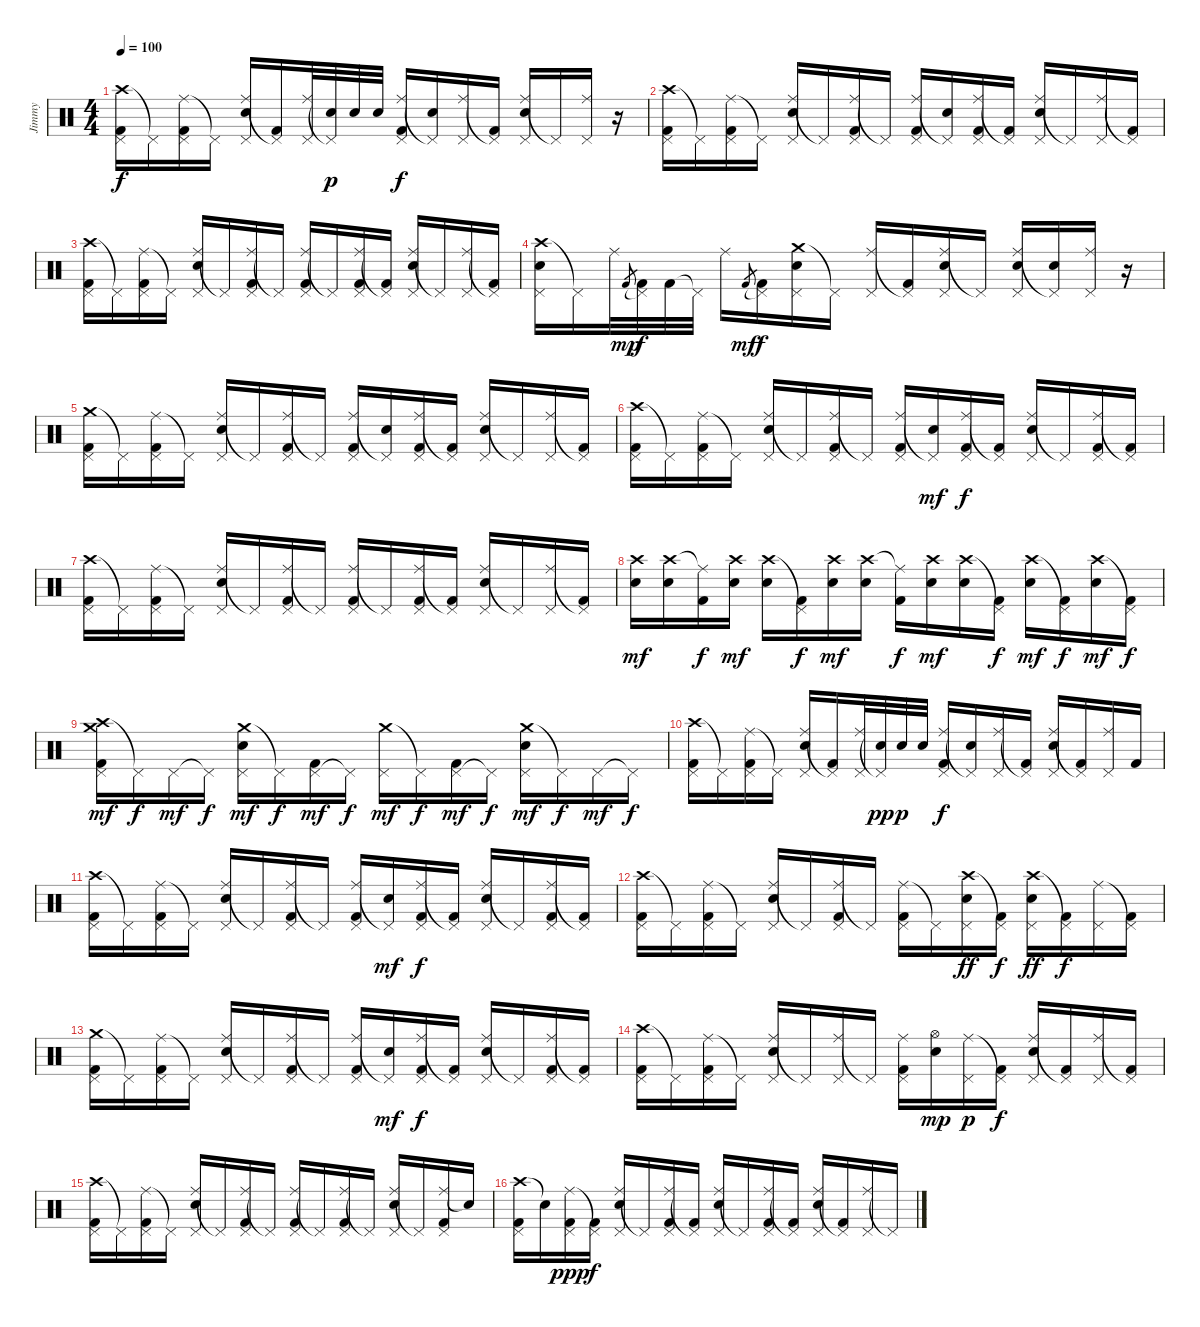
\track ("Jimmy" "Jimmy") {instrument percussion}
\staff {score}
\articulation defaults
\ts (4 4)
\tempo 100
\clef neutral
\ks c
("Crash high (hit)" "Pedal Hi-Hat (hit)" "Kick (hit) 2").16{dy f} "Pedal Hi-Hat (hit)"{t}.16 ("Ride (middle)" "Pedal Hi-Hat (hit)" "Kick (hit) 2").16 "Pedal Hi-Hat (hit)"{t}.16 ("Ride (middle)" "Pedal Hi-Hat (hit)" "Electric Snare (hit)").16 ("Pedal Hi-Hat (hit)"{t} "Kick (hit) 2").16 ("Ride (middle)" "Pedal Hi-Hat (hit)").32 ("Pedal Hi-Hat (hit)"{t} "Electric Snare (hit)").32{dy p} "Electric Snare (hit)".32 "Electric Snare (hit)".32 ("Ride (middle)" "Pedal Hi-Hat (hit)" "Kick (hit) 2").16{dy f} ("Pedal Hi-Hat (hit)"{t} "Electric Snare (hit)").16 ("Ride (middle)" "Pedal Hi-Hat (hit)").16 ("Pedal Hi-Hat (hit)"{t} "Kick (hit) 2").16 ("Ride (middle)" "Pedal Hi-Hat (hit)" "Electric Snare (hit)").16 "Pedal Hi-Hat (hit)"{t}.16 ("Ride (middle)" "Pedal Hi-Hat (hit)").16 r.16 |
("Crash high (hit)" "Pedal Hi-Hat (hit)" "Kick (hit) 2").16 "Pedal Hi-Hat (hit)"{t}.16 ("Ride (middle)" "Pedal Hi-Hat (hit)" "Kick (hit) 2").16 "Pedal Hi-Hat (hit)"{t}.16 ("Ride (middle)" "Pedal Hi-Hat (hit)" "Electric Snare (hit)").16 "Pedal Hi-Hat (hit)"{t}.16 ("Ride (middle)" "Pedal Hi-Hat (hit)" "Kick (hit) 2").16 "Pedal Hi-Hat (hit)"{t}.16 ("Ride (middle)" "Pedal Hi-Hat (hit)" "Kick (hit) 2").16 ("Pedal Hi-Hat (hit)"{t} "Electric Snare (hit)").16 ("Ride (middle)" "Pedal Hi-Hat (hit)" "Kick (hit) 2").16 ("Pedal Hi-Hat (hit)"{t} "Kick (hit) 2").16 ("Ride (middle)" "Pedal Hi-Hat (hit)" "Electric Snare (hit)").16 "Pedal Hi-Hat (hit)"{t}.16 ("Ride (middle)" "Pedal Hi-Hat (hit)").16 ("Pedal Hi-Hat (hit)"{t} "Kick (hit) 2").16 |
("Crash high (hit)" "Pedal Hi-Hat (hit)" "Kick (hit) 2").16 "Pedal Hi-Hat (hit)"{t}.16 ("Ride (middle)" "Pedal Hi-Hat (hit)" "Kick (hit) 2").16 "Pedal Hi-Hat (hit)"{t}.16 ("Ride (middle)" "Pedal Hi-Hat (hit)" "Electric Snare (hit)").16 "Pedal Hi-Hat (hit)"{t}.16 ("Ride (middle)" "Pedal Hi-Hat (hit)" "Kick (hit) 2").16 "Pedal Hi-Hat (hit)"{t}.16 ("Ride (middle)" "Pedal Hi-Hat (hit)" "Kick (hit) 2").16 "Pedal Hi-Hat (hit)"{t}.16 ("Ride (middle)" "Pedal Hi-Hat (hit)" "Kick (hit) 2").16 ("Pedal Hi-Hat (hit)"{t} "Kick (hit) 2").16 ("Ride (middle)" "Pedal Hi-Hat (hit)" "Electric Snare (hit)").16 "Pedal Hi-Hat (hit)"{t}.16 ("Ride (middle)" "Pedal Hi-Hat (hit)").16 ("Pedal Hi-Hat (hit)"{t} "Kick (hit) 2").16 |
("Crash high (hit)" "Pedal Hi-Hat (hit)" "Electric Snare (hit)").16 "Pedal Hi-Hat (hit)"{t}.16 "Ride (middle)".32 "Kick (hit) 2".8{gr dy mp} ("Pedal Hi-Hat (hit)"{t} "Kick (hit) 2").32{dy f} "Kick (hit) 2".32 "Pedal Hi-Hat (hit)"{t}.32 "Ride (middle)".16 "Kick (hit) 2".8{gr dy mf} ("Pedal Hi-Hat (hit)"{t} "Kick (hit) 2").16{dy f} ("Crash medium (hit)" "Pedal Hi-Hat (hit)" "Electric Snare (hit)").16 "Pedal Hi-Hat (hit)"{t}.16 ("Ride (middle)" "Pedal Hi-Hat (hit)").16 ("Pedal Hi-Hat (hit)"{t} "Kick (hit) 2").16 ("Ride (middle)" "Pedal Hi-Hat (hit)" "Electric Snare (hit)").16 "Pedal Hi-Hat (hit)"{t}.16 ("Ride (middle)" "Pedal Hi-Hat (hit)" "Electric Snare (hit)").16 ("Pedal Hi-Hat (hit)"{t} "Electric Snare (hit)").16 ("Ride (middle)" "Pedal Hi-Hat (hit)").16 r.16 |
("Crash medium (hit)" "Pedal Hi-Hat (hit)" "Kick (hit) 2").16 "Pedal Hi-Hat (hit)"{t}.16 ("Ride (middle)" "Pedal Hi-Hat (hit)" "Kick (hit) 2").16 "Pedal Hi-Hat (hit)"{t}.16 ("Ride (middle)" "Pedal Hi-Hat (hit)" "Electric Snare (hit)").16 "Pedal Hi-Hat (hit)"{t}.16 ("Ride (middle)" "Pedal Hi-Hat (hit)" "Kick (hit) 2").16 "Pedal Hi-Hat (hit)"{t}.16 ("Ride (middle)" "Pedal Hi-Hat (hit)" "Kick (hit) 2").16 ("Pedal Hi-Hat (hit)"{t} "Electric Snare (hit)").16 ("Ride (middle)" "Pedal Hi-Hat (hit)" "Kick (hit) 2").16 ("Pedal Hi-Hat (hit)"{t} "Kick (hit) 2").16 ("Ride (middle)" "Pedal Hi-Hat (hit)" "Electric Snare (hit)").16 "Pedal Hi-Hat (hit)"{t}.16 ("Ride (middle)" "Pedal Hi-Hat (hit)").16 ("Pedal Hi-Hat (hit)"{t} "Kick (hit) 2").16 |
("Crash high (hit)" "Pedal Hi-Hat (hit)" "Kick (hit) 2").16 "Pedal Hi-Hat (hit)"{t}.16 ("Ride (middle)" "Pedal Hi-Hat (hit)" "Kick (hit) 2").16 "Pedal Hi-Hat (hit)"{t}.16 ("Ride (middle)" "Pedal Hi-Hat (hit)" "Electric Snare (hit)").16 "Pedal Hi-Hat (hit)"{t}.16 ("Ride (middle)" "Pedal Hi-Hat (hit)" "Kick (hit) 2").16 "Pedal Hi-Hat (hit)"{t}.16 ("Ride (middle)" "Pedal Hi-Hat (hit)" "Kick (hit) 2").16 ("Pedal Hi-Hat (hit)"{t} "Electric Snare (hit)").16{dy mf} ("Ride (middle)" "Pedal Hi-Hat (hit)" "Kick (hit) 2").16{dy f} ("Pedal Hi-Hat (hit)"{t} "Kick (hit) 2").16 ("Ride (middle)" "Pedal Hi-Hat (hit)" "Electric Snare (hit)").16 "Pedal Hi-Hat (hit)"{t}.16 ("Ride (middle)" "Pedal Hi-Hat (hit)" "Kick (hit) 2").16 ("Pedal Hi-Hat (hit)"{t} "Kick (hit) 2").16 |
("Crash high (hit)" "Pedal Hi-Hat (hit)" "Kick (hit) 2").16 "Pedal Hi-Hat (hit)"{t}.16 ("Ride (middle)" "Pedal Hi-Hat (hit)" "Kick (hit) 2").16 "Pedal Hi-Hat (hit)"{t}.16 ("Ride (middle)" "Pedal Hi-Hat (hit)" "Electric Snare (hit)").16 "Pedal Hi-Hat (hit)"{t}.16 ("Ride (middle)" "Pedal Hi-Hat (hit)" "Kick (hit) 2").16 "Pedal Hi-Hat (hit)"{t}.16 ("Ride (middle)" "Pedal Hi-Hat (hit)" "Kick (hit) 2").16 "Pedal Hi-Hat (hit)"{t}.16 ("Ride (middle)" "Pedal Hi-Hat (hit)" "Kick (hit) 2").16 ("Pedal Hi-Hat (hit)"{t} "Kick (hit) 2").16 ("Ride (middle)" "Pedal Hi-Hat (hit)" "Electric Snare (hit)").16 "Pedal Hi-Hat (hit)"{t}.16 ("Ride (middle)" "Pedal Hi-Hat (hit)").16 ("Pedal Hi-Hat (hit)"{t} "Kick (hit) 2").16 |
("Crash high (hit)" "Electric Snare (hit)").16{dy mf} ("Crash high (hit)" "Electric Snare (hit)").16 ("Ride (middle)"{t} "Kick (hit) 2").16{dy f} ("Crash high (hit)" "Electric Snare (hit)").16{dy mf} ("Crash high (hit)" "Electric Snare (hit)").16 ("Pedal Hi-Hat (hit)"{t} "Kick (hit) 2").16{dy f} ("Crash high (hit)" "Electric Snare (hit)").16{dy mf} ("Crash high (hit)" "Electric Snare (hit)").16 ("Ride (middle)"{t} "Kick (hit) 2").16{dy f} ("Crash high (hit)" "Electric Snare (hit)").16{dy mf} ("Crash high (hit)" "Electric Snare (hit)").16 ("Pedal Hi-Hat (hit)"{t} "Kick (hit) 2").16{dy f} ("Crash high (hit)" "Electric Snare (hit)").16{dy mf} ("Pedal Hi-Hat (hit)"{t} "Kick (hit) 2").16{dy f} ("Crash high (hit)" "Electric Snare (hit)").16{dy mf} ("Pedal Hi-Hat (hit)"{t} "Kick (hit) 2").16{dy f} |
("Crash high (hit)" "Crash medium (hit)" "Pedal Hi-Hat (hit)" "Kick (hit) 2").16{dy mf} "Pedal Hi-Hat (hit)"{t}.16{dy f} "Pedal Hi-Hat (hit)".16{dy mf} "Pedal Hi-Hat (hit)"{t}.16{dy f} ("Crash medium (hit)" "Pedal Hi-Hat (hit)" "Electric Snare (hit)").16{dy mf} "Pedal Hi-Hat (hit)"{t}.16{dy f} ("Pedal Hi-Hat (hit)" "Kick (hit) 2").16{dy mf} "Pedal Hi-Hat (hit)"{t}.16{dy f} ("Crash medium (hit)" "Pedal Hi-Hat (hit)").16{dy mf} "Pedal Hi-Hat (hit)"{t}.16{dy f} ("Pedal Hi-Hat (hit)" "Kick (hit) 2").16{dy mf} "Pedal Hi-Hat (hit)"{t}.16{dy f} ("Crash medium (hit)" "Pedal Hi-Hat (hit)" "Electric Snare (hit)").16{dy mf} "Pedal Hi-Hat (hit)"{t}.16{dy f} "Pedal Hi-Hat (hit)".16{dy mf} "Pedal Hi-Hat (hit)"{t}.16{dy f} |
("Crash high (hit)" "Pedal Hi-Hat (hit)" "Kick (hit) 2").16 "Pedal Hi-Hat (hit)"{t}.16 ("Ride (middle)" "Pedal Hi-Hat (hit)" "Kick (hit) 2").16 "Pedal Hi-Hat (hit)"{t}.16 ("Ride (middle)" "Pedal Hi-Hat (hit)" "Electric Snare (hit)").16 ("Pedal Hi-Hat (hit)"{t} "Kick (hit) 2").16 ("Ride (middle)" "Pedal Hi-Hat (hit)").32 ("Pedal Hi-Hat (hit)"{t} "Electric Snare (hit)").32{dy pp} "Electric Snare (hit)".32{dy p} "Electric Snare (hit)".32 ("Ride (middle)" "Pedal Hi-Hat (hit)" "Kick (hit) 2").16{dy f} ("Pedal Hi-Hat (hit)"{t} "Electric Snare (hit)").16 ("Ride (middle)" "Pedal Hi-Hat (hit)").16 ("Pedal Hi-Hat (hit)"{t} "Kick (hit) 2").16 ("Ride (middle)" "Pedal Hi-Hat (hit)" "Electric Snare (hit)").16 ("Pedal Hi-Hat (hit)"{t} "Kick (hit) 2").16 ("Ride (middle)" "Pedal Hi-Hat (hit)").16 "Kick (hit) 2".16 |
("Crash high (hit)" "Pedal Hi-Hat (hit)" "Kick (hit) 2").16 "Pedal Hi-Hat (hit)"{t}.16 ("Ride (middle)" "Pedal Hi-Hat (hit)" "Kick (hit) 2").16 "Pedal Hi-Hat (hit)"{t}.16 ("Ride (middle)" "Pedal Hi-Hat (hit)" "Electric Snare (hit)").16 "Pedal Hi-Hat (hit)"{t}.16 ("Ride (middle)" "Pedal Hi-Hat (hit)" "Kick (hit) 2").16 "Pedal Hi-Hat (hit)"{t}.16 ("Ride (middle)" "Pedal Hi-Hat (hit)" "Kick (hit) 2").16 ("Pedal Hi-Hat (hit)"{t} "Electric Snare (hit)").16{dy mf} ("Ride (middle)" "Pedal Hi-Hat (hit)" "Kick (hit) 2").16{dy f} ("Pedal Hi-Hat (hit)"{t} "Kick (hit) 2").16 ("Ride (middle)" "Pedal Hi-Hat (hit)" "Electric Snare (hit)").16 "Pedal Hi-Hat (hit)"{t}.16 ("Ride (middle)" "Pedal Hi-Hat (hit)" "Kick (hit) 2").16 ("Pedal Hi-Hat (hit)"{t} "Kick (hit) 2").16 |
("Crash high (hit)" "Pedal Hi-Hat (hit)" "Kick (hit) 2").16 "Pedal Hi-Hat (hit)"{t}.16 ("Ride (middle)" "Pedal Hi-Hat (hit)" "Kick (hit) 2").16 "Pedal Hi-Hat (hit)"{t}.16 ("Ride (middle)" "Pedal Hi-Hat (hit)" "Electric Snare (hit)").16 "Pedal Hi-Hat (hit)"{t}.16 ("Ride (middle)" "Pedal Hi-Hat (hit)" "Kick (hit) 2").16 "Pedal Hi-Hat (hit)"{t}.16 ("Ride (middle)" "Pedal Hi-Hat (hit)" "Kick (hit) 2").16 "Pedal Hi-Hat (hit)"{t}.16 ("Crash high (hit)" "Pedal Hi-Hat (hit)" "Electric Snare (hit)").16{dy ff} ("Pedal Hi-Hat (hit)"{t} "Kick (hit) 2").16{dy f} ("Crash high (hit)" "Pedal Hi-Hat (hit)" "Electric Snare (hit)").16{dy ff} ("Pedal Hi-Hat (hit)"{t} "Kick (hit) 2").16{dy f} ("Ride (middle)" "Pedal Hi-Hat (hit)").16 ("Pedal Hi-Hat (hit)"{t} "Kick (hit) 2").16 |
("Crash medium (hit)" "Pedal Hi-Hat (hit)" "Kick (hit) 2").16 "Pedal Hi-Hat (hit)"{t}.16 ("Ride (middle)" "Pedal Hi-Hat (hit)" "Kick (hit) 2").16 "Pedal Hi-Hat (hit)"{t}.16 ("Ride (middle)" "Pedal Hi-Hat (hit)" "Electric Snare (hit)").16 "Pedal Hi-Hat (hit)"{t}.16 ("Ride (middle)" "Pedal Hi-Hat (hit)" "Kick (hit) 2").16 "Pedal Hi-Hat (hit)"{t}.16 ("Ride (middle)" "Pedal Hi-Hat (hit)" "Kick (hit) 2").16 ("Pedal Hi-Hat (hit)"{t} "Electric Snare (hit)").16{dy mf} ("Ride (middle)" "Pedal Hi-Hat (hit)" "Kick (hit) 2").16{dy f} ("Pedal Hi-Hat (hit)"{t} "Kick (hit) 2").16 ("Ride (middle)" "Pedal Hi-Hat (hit)" "Electric Snare (hit)").16 "Pedal Hi-Hat (hit)"{t}.16 ("Ride (middle)" "Pedal Hi-Hat (hit)" "Kick (hit) 2").16 ("Pedal Hi-Hat (hit)"{t} "Kick (hit) 2").16 |
("Crash high (hit)" "Pedal Hi-Hat (hit)" "Kick (hit) 2").16 "Pedal Hi-Hat (hit)"{t}.16 ("Ride (middle)" "Pedal Hi-Hat (hit)" "Kick (hit) 2").16 "Pedal Hi-Hat (hit)"{t}.16 ("Ride (middle)" "Pedal Hi-Hat (hit)" "Electric Snare (hit)").16 "Pedal Hi-Hat (hit)"{t}.16 ("Ride (middle)" "Pedal Hi-Hat (hit)").16 "Pedal Hi-Hat (hit)"{t}.16 ("Ride (middle)" "Pedal Hi-Hat (hit)" "Kick (hit) 2").16 ("Hi-Hat (open)" "Electric Snare (hit)").16{dy mp} ("Ride (middle)" "Pedal Hi-Hat (hit)").16{dy p} ("Pedal Hi-Hat (hit)"{t} "Kick (hit) 2").16{dy f} ("Ride (middle)" "Pedal Hi-Hat (hit)" "Electric Snare (hit)").16 ("Pedal Hi-Hat (hit)"{t} "Kick (hit) 2").16 ("Ride (middle)" "Pedal Hi-Hat (hit)").16 ("Pedal Hi-Hat (hit)"{t} "Kick (hit) 2").16 |
("Crash high (hit)" "Pedal Hi-Hat (hit)" "Kick (hit) 2").16 "Pedal Hi-Hat (hit)"{t}.16 ("Ride (middle)" "Pedal Hi-Hat (hit)" "Kick (hit) 2").16 "Pedal Hi-Hat (hit)"{t}.16 ("Ride (middle)" "Pedal Hi-Hat (hit)" "Electric Snare (hit)").16 "Pedal Hi-Hat (hit)"{t}.16 ("Ride (middle)" "Pedal Hi-Hat (hit)" "Kick (hit) 2").16 "Pedal Hi-Hat (hit)"{t}.16 ("Ride (middle)" "Pedal Hi-Hat (hit)" "Kick (hit) 2").16 "Pedal Hi-Hat (hit)"{t}.16 ("Ride (middle)" "Pedal Hi-Hat (hit)" "Kick (hit) 2").16 "Pedal Hi-Hat (hit)"{t}.16 ("Ride (middle)" "Pedal Hi-Hat (hit)" "Electric Snare (hit)").16 "Pedal Hi-Hat (hit)"{t}.16 ("Ride (middle)" "Pedal Hi-Hat (hit)" "Kick (hit) 2").16 "Snare (hit)"{t}.16 |
("Crash high (hit)" "Pedal Hi-Hat (hit)" "Kick (hit) 2").16 "Snare (hit)"{t}.16 ("Ride (middle)" "Pedal Hi-Hat (hit)" "Kick (hit) 2").16{dy ppp} ("Pedal Hi-Hat (hit)"{t} "Kick (hit) 2").16{dy f} ("Ride (middle)" "Pedal Hi-Hat (hit)" "Electric Snare (hit)").16 "Pedal Hi-Hat (hit)"{t}.16 ("Ride (middle)" "Pedal Hi-Hat (hit)" "Kick (hit) 2").16 ("Pedal Hi-Hat (hit)"{t} "Kick (hit) 2").16 ("Ride (middle)" "Pedal Hi-Hat (hit)" "Electric Snare (hit)").16 "Pedal Hi-Hat (hit)"{t}.16 ("Ride (middle)" "Pedal Hi-Hat (hit)" "Kick (hit) 2").16 ("Pedal Hi-Hat (hit)"{t} "Kick (hit) 2").16 ("Ride (middle)" "Pedal Hi-Hat (hit)" "Electric Snare (hit)").16 ("Pedal Hi-Hat (hit)"{t} "Kick (hit) 2").16 ("Ride (middle)" "Pedal Hi-Hat (hit)").16 "Pedal Hi-Hat (hit)"{t}.16
